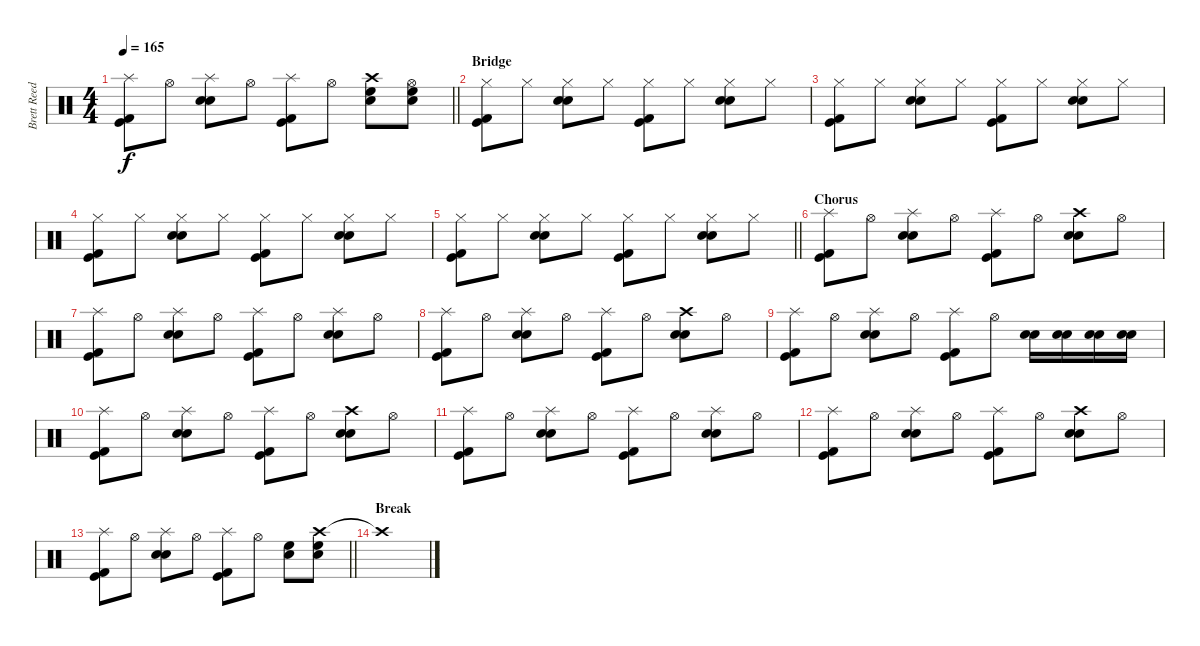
\track ("Brett Reed" "Brett Reed") {instrument percussion}
\staff {score}
\articulation defaults
\ts (4 4)
\tempo 165
\clef neutral
\barLineRight lightlight
\ks c
("Splash (hit)" "Kick (hit) 2" "Kick (hit)").8{dy f} "Hi-Hat (open)".8 ("Splash (hit)" "Electric Snare (hit)" "Snare (hit) 2").8 "Hi-Hat (open)".8 ("Splash (hit)" "Kick (hit) 2" "Kick (hit)").8 "Hi-Hat (open)".8 ("Crash high (hit)" "High Floor Tom (hit)" "Snare (hit) 2").8 ("Hi-Hat (open)" "High Floor Tom (hit)" "Snare (hit) 2").8 |
\section ("" "Bridge")
("Hi-Hat (closed)" "Kick (hit) 2" "Kick (hit)").8 "Hi-Hat (closed)".8 ("Hi-Hat (closed)" "Electric Snare (hit)" "Snare (hit) 2").8 "Hi-Hat (closed)".8 ("Hi-Hat (closed)" "Kick (hit) 2" "Kick (hit)").8 "Hi-Hat (closed)".8 ("Hi-Hat (closed)" "Electric Snare (hit)" "Snare (hit) 2").8 "Hi-Hat (closed)".8 |
("Hi-Hat (closed)" "Kick (hit) 2" "Kick (hit)").8 "Hi-Hat (closed)".8 ("Hi-Hat (closed)" "Electric Snare (hit)" "Snare (hit) 2").8 "Hi-Hat (closed)".8 ("Hi-Hat (closed)" "Kick (hit) 2" "Kick (hit)").8 "Hi-Hat (closed)".8 ("Hi-Hat (closed)" "Electric Snare (hit)" "Snare (hit) 2").8 "Hi-Hat (closed)".8 |
("Hi-Hat (closed)" "Kick (hit) 2" "Kick (hit)").8 "Hi-Hat (closed)".8 ("Hi-Hat (closed)" "Electric Snare (hit)" "Snare (hit) 2").8 "Hi-Hat (closed)".8 ("Hi-Hat (closed)" "Kick (hit) 2" "Kick (hit)").8 "Hi-Hat (closed)".8 ("Hi-Hat (closed)" "Electric Snare (hit)" "Snare (hit) 2").8 "Hi-Hat (closed)".8 |
\barLineRight lightlight
("Hi-Hat (closed)" "Kick (hit) 2" "Kick (hit)").8 "Hi-Hat (closed)".8 ("Hi-Hat (closed)" "Electric Snare (hit)" "Snare (hit) 2").8 "Hi-Hat (closed)".8 ("Hi-Hat (closed)" "Kick (hit) 2" "Kick (hit)").8 "Hi-Hat (closed)".8 ("Hi-Hat (closed)" "Electric Snare (hit)" "Snare (hit) 2").8 "Hi-Hat (closed)".8 |
\section ("" "Chorus")
("Splash (hit)" "Kick (hit) 2" "Kick (hit)").8 "Hi-Hat (open)".8 ("Splash (hit)" "Electric Snare (hit)" "Snare (hit) 2").8 "Hi-Hat (open)".8 ("Splash (hit)" "Kick (hit) 2" "Kick (hit)").8 "Hi-Hat (open)".8 ("Crash high (hit)" "Electric Snare (hit)" "Snare (hit) 2").8 "Hi-Hat (open)".8 |
("Splash (hit)" "Kick (hit) 2" "Kick (hit)").8 "Hi-Hat (open)".8 ("Splash (hit)" "Electric Snare (hit)" "Snare (hit) 2").8 "Hi-Hat (open)".8 ("Splash (hit)" "Kick (hit) 2" "Kick (hit)").8 "Hi-Hat (open)".8 ("Splash (hit)" "Electric Snare (hit)" "Snare (hit) 2").8 "Hi-Hat (open)".8 |
("Splash (hit)" "Kick (hit) 2" "Kick (hit)").8 "Hi-Hat (open)".8 ("Splash (hit)" "Electric Snare (hit)" "Snare (hit) 2").8 "Hi-Hat (open)".8 ("Splash (hit)" "Kick (hit) 2" "Kick (hit)").8 "Hi-Hat (open)".8 ("Crash high (hit)" "Electric Snare (hit)" "Snare (hit) 2").8 "Hi-Hat (open)".8 |
("Splash (hit)" "Kick (hit) 2" "Kick (hit)").8 "Hi-Hat (open)".8 ("Splash (hit)" "Electric Snare (hit)" "Snare (hit) 2").8 "Hi-Hat (open)".8 ("Splash (hit)" "Kick (hit) 2" "Kick (hit)").8 "Hi-Hat (open)".8 ("Electric Snare (hit)" "Snare (hit) 2").16 ("Electric Snare (hit)" "Snare (hit) 2").16 ("Electric Snare (hit)" "Snare (hit) 2").16 ("Electric Snare (hit)" "Snare (hit) 2").16 |
("Splash (hit)" "Kick (hit) 2" "Kick (hit)").8 "Hi-Hat (open)".8 ("Splash (hit)" "Electric Snare (hit)" "Snare (hit) 2").8 "Hi-Hat (open)".8 ("Splash (hit)" "Kick (hit) 2" "Kick (hit)").8 "Hi-Hat (open)".8 ("Crash high (hit)" "Electric Snare (hit)" "Snare (hit) 2").8 "Hi-Hat (open)".8 |
("Splash (hit)" "Kick (hit) 2" "Kick (hit)").8 "Hi-Hat (open)".8 ("Splash (hit)" "Electric Snare (hit)" "Snare (hit) 2").8 "Hi-Hat (open)".8 ("Splash (hit)" "Kick (hit) 2" "Kick (hit)").8 "Hi-Hat (open)".8 ("Splash (hit)" "Electric Snare (hit)" "Snare (hit) 2").8 "Hi-Hat (open)".8 |
("Splash (hit)" "Kick (hit) 2" "Kick (hit)").8 "Hi-Hat (open)".8 ("Splash (hit)" "Electric Snare (hit)" "Snare (hit) 2").8 "Hi-Hat (open)".8 ("Splash (hit)" "Kick (hit) 2" "Kick (hit)").8 "Hi-Hat (open)".8 ("Crash high (hit)" "Electric Snare (hit)" "Snare (hit) 2").8 "Hi-Hat (open)".8 |
\barLineRight lightlight
("Splash (hit)" "Kick (hit) 2" "Kick (hit)").8 "Hi-Hat (open)".8 ("Splash (hit)" "Electric Snare (hit)" "Snare (hit) 2").8 "Hi-Hat (open)".8 ("Splash (hit)" "Kick (hit) 2" "Kick (hit)").8 "Hi-Hat (open)".8 ("High Floor Tom (hit)" "Snare (hit) 2").8 ("Crash high (hit)" "High Floor Tom (hit)" "Snare (hit) 2").8 |
\section ("" "Break")
"Crash high (hit)"{t}.1
